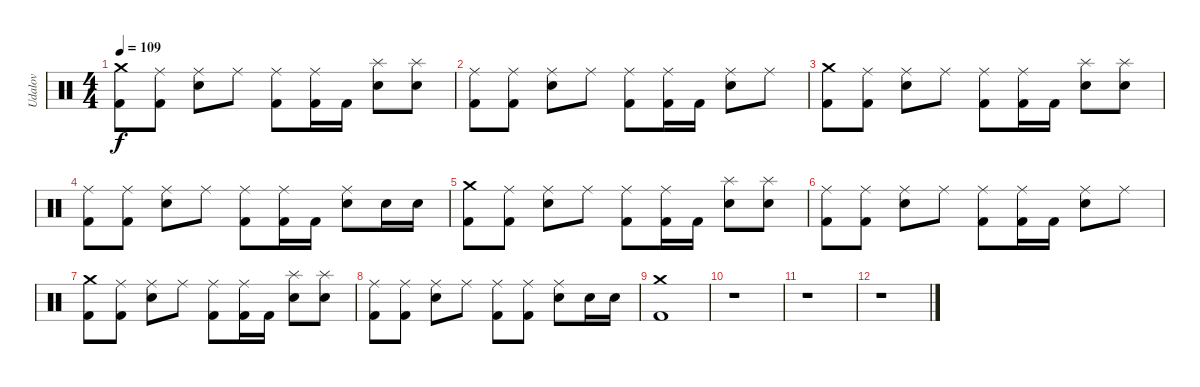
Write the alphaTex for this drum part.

\track ("Udalov" "Udalov") {instrument percussion}
\staff {score}
\articulation defaults
\ts (4 4)
\tempo 109
\clef neutral
\ks c
("Kick (hit) 2" "Crash medium (hit)").8{dy f} ("Ride (middle)" "Kick (hit) 2").8 ("Ride (middle)" "Snare (hit) 2").8 "Ride (middle)".8 ("Ride (middle)" "Kick (hit) 2").8 ("Ride (middle)" "Kick (hit) 2").16 "Kick (hit) 2".16 ("Splash (hit)" "Snare (hit) 2").8 ("Splash (hit)" "Snare (hit) 2").8 |
("Kick (hit) 2" "Ride (middle)").8 ("Ride (middle)" "Kick (hit) 2").8 ("Ride (middle)" "Snare (hit) 2").8 "Ride (middle)".8 ("Ride (middle)" "Kick (hit) 2").8 ("Ride (middle)" "Kick (hit) 2").16 "Kick (hit) 2".16 ("Ride (middle)" "Snare (hit) 2").8 "Ride (middle)".8 |
("Kick (hit) 2" "Crash medium (hit)").8 ("Ride (middle)" "Kick (hit) 2").8 ("Ride (middle)" "Snare (hit) 2").8 "Ride (middle)".8 ("Ride (middle)" "Kick (hit) 2").8 ("Ride (middle)" "Kick (hit) 2").16 "Kick (hit) 2".16 ("Splash (hit)" "Snare (hit) 2").8 ("Splash (hit)" "Snare (hit) 2").8 |
("Kick (hit) 2" "Ride (middle)").8 ("Ride (middle)" "Kick (hit) 2").8 ("Ride (middle)" "Snare (hit) 2").8 "Ride (middle)".8 ("Ride (middle)" "Kick (hit) 2").8 ("Ride (middle)" "Kick (hit) 2").16 "Kick (hit) 2".16 ("Ride (middle)" "Snare (hit) 2").8 "Snare (hit) 2".16 "Snare (hit) 2".16 |
("Kick (hit) 2" "Crash medium (hit)").8 ("Ride (middle)" "Kick (hit) 2").8 ("Ride (middle)" "Snare (hit) 2").8 "Ride (middle)".8 ("Ride (middle)" "Kick (hit) 2").8 ("Ride (middle)" "Kick (hit) 2").16 "Kick (hit) 2".16 ("Splash (hit)" "Snare (hit) 2").8 ("Splash (hit)" "Snare (hit) 2").8 |
("Kick (hit) 2" "Ride (middle)").8 ("Ride (middle)" "Kick (hit) 2").8 ("Ride (middle)" "Snare (hit) 2").8 "Ride (middle)".8 ("Ride (middle)" "Kick (hit) 2").8 ("Ride (middle)" "Kick (hit) 2").16 "Kick (hit) 2".16 ("Ride (middle)" "Snare (hit) 2").8 "Ride (middle)".8 |
("Kick (hit) 2" "Crash medium (hit)").8 ("Ride (middle)" "Kick (hit) 2").8 ("Ride (middle)" "Snare (hit) 2").8 "Ride (middle)".8 ("Ride (middle)" "Kick (hit) 2").8 ("Ride (middle)" "Kick (hit) 2").16 "Kick (hit) 2".16 ("Splash (hit)" "Snare (hit) 2").8 ("Splash (hit)" "Snare (hit) 2").8 |
("Kick (hit) 2" "Ride (middle)").8 ("Ride (middle)" "Kick (hit) 2").8 ("Ride (middle)" "Snare (hit) 2").8 "Ride (middle)".8 ("Ride (middle)" "Kick (hit) 2").8 ("Ride (middle)" "Kick (hit) 2").8 ("Ride (middle)" "Snare (hit) 2").8 "Snare (hit) 2".16 "Snare (hit) 2".16 |
("Kick (hit) 2" "Crash medium (hit)").1 |
r.1 |
r.1 |
r.1
